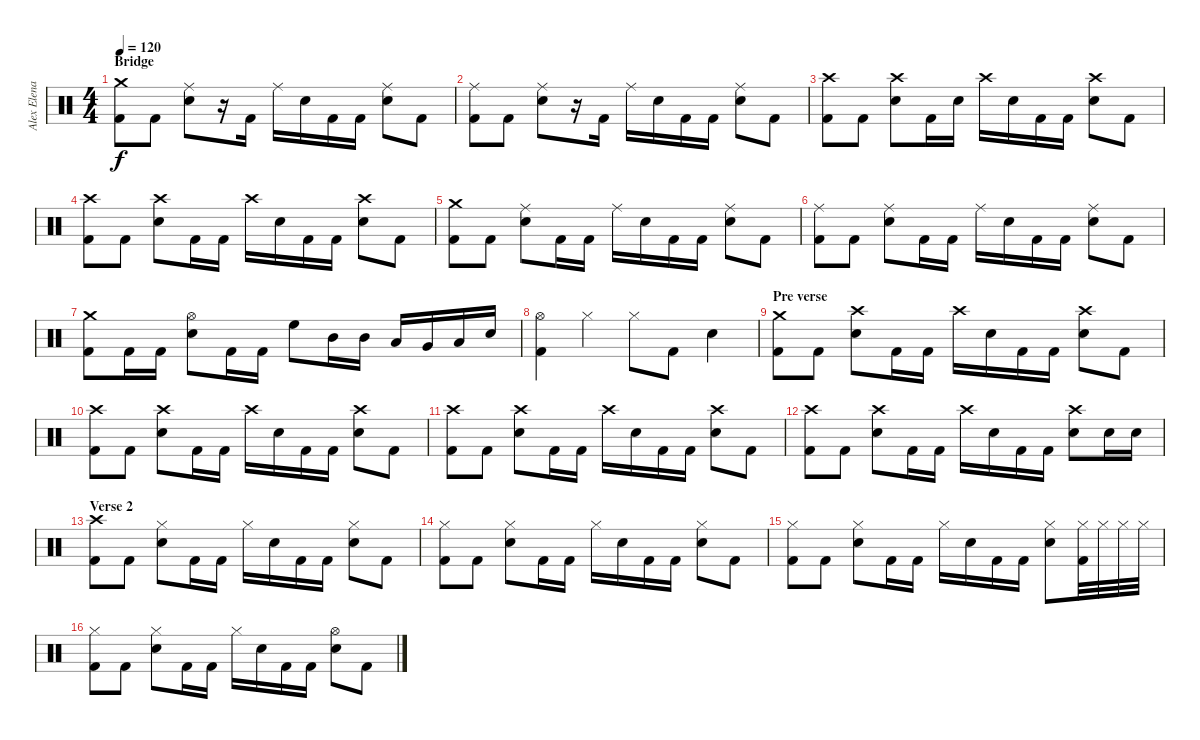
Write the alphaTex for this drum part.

\track ("Alex Elena (Percussion)" "Alex Elena") {instrument percussion}
\staff {score}
\articulation defaults
\ts (4 4)
\section ("" "Bridge")
\tempo 120
\clef neutral
\ks c
("Crash medium (hit)" "Kick (hit) 2").8{dy f} "Kick (hit) 2".8 ("Ride (middle)" "Snare (hit) 2").8 r.16 "Kick (hit) 2".16 "Ride (middle)".16 "Snare (hit) 2".16 "Kick (hit) 2".16 "Kick (hit) 2".16 ("Ride (middle)" "Snare (hit) 2").8 "Kick (hit) 2".8 |
("Ride (middle)" "Kick (hit) 2").8 "Kick (hit) 2".8 ("Ride (middle)" "Snare (hit) 2").8 r.16 "Kick (hit) 2".16 "Ride (middle)".16 "Snare (hit) 2".16 "Kick (hit) 2".16 "Kick (hit) 2".16 ("Ride (middle)" "Snare (hit) 2").8 "Kick (hit) 2".8 |
("Crash high (hit)" "Kick (hit) 2").8 "Kick (hit) 2".8 ("Crash high (hit)" "Snare (hit) 2").8 "Kick (hit) 2".16 "Snare (hit) 2".16 "Crash high (hit)".16 "Snare (hit) 2".16 "Kick (hit) 2".16 "Kick (hit) 2".16 ("Crash high (hit)" "Snare (hit) 2").8 "Kick (hit) 2".8 |
("Crash high (hit)" "Kick (hit) 2").8 "Kick (hit) 2".8 ("Crash high (hit)" "Snare (hit) 2").8 "Kick (hit) 2".16 "Kick (hit) 2".16 "Crash high (hit)".16 "Snare (hit) 2".16 "Kick (hit) 2".16 "Kick (hit) 2".16 ("Crash high (hit)" "Snare (hit) 2").8 "Kick (hit) 2".8 |
("Crash medium (hit)" "Kick (hit) 2").8 "Kick (hit) 2".8 ("Ride (middle)" "Snare (hit) 2").8 "Kick (hit) 2".16 "Kick (hit) 2".16 "Ride (middle)".16 "Snare (hit) 2".16 "Kick (hit) 2".16 "Kick (hit) 2".16 ("Ride (middle)" "Snare (hit) 2").8 "Kick (hit) 2".8 |
("Ride (middle)" "Kick (hit) 2").8 "Kick (hit) 2".8 ("Ride (middle)" "Snare (hit) 2").8 "Kick (hit) 2".16 "Kick (hit) 2".16 "Ride (middle)".16 "Snare (hit) 2".16 "Kick (hit) 2".16 "Kick (hit) 2".16 ("Ride (middle)" "Snare (hit) 2").8 "Kick (hit) 2".8 |
("Crash medium (hit)" "Kick (hit) 2").8 "Kick (hit) 2".16 "Kick (hit) 2".16 ("Hi-Hat (open)" "Snare (hit) 2").8 "Kick (hit) 2".16 "Kick (hit) 2".16 "High Floor Tom (hit)".8 "Mid Tom (hit)".16 "Mid Tom (hit)".16 "Low Tom (hit)".16 "Very Low Tom (hit)".16 "Low Floor Tom (hit)".16 "Snare (hit) 2".16 |
("Hi-Hat (open)" "Kick (hit) 2").4 "Hi-Hat (closed)".4 "Hi-Hat (closed)".8 "Kick (hit) 2".8 "Snare (hit) 2".4 |
\section ("" "Pre verse")
("Crash medium (hit)" "Kick (hit) 2").8 "Kick (hit) 2".8 ("Crash high (hit)" "Snare (hit) 2").8 "Kick (hit) 2".16 "Kick (hit) 2".16 "Crash high (hit)".16 "Snare (hit) 2".16 "Kick (hit) 2".16 "Kick (hit) 2".16 ("Crash high (hit)" "Snare (hit) 2").8 "Kick (hit) 2".8 |
("Crash high (hit)" "Kick (hit) 2").8 "Kick (hit) 2".8 ("Crash high (hit)" "Snare (hit) 2").8 "Kick (hit) 2".16 "Kick (hit) 2".16 "Crash high (hit)".16 "Snare (hit) 2".16 "Kick (hit) 2".16 "Kick (hit) 2".16 ("Crash high (hit)" "Snare (hit) 2").8 "Kick (hit) 2".8 |
("Crash high (hit)" "Kick (hit) 2").8 "Kick (hit) 2".8 ("Crash high (hit)" "Snare (hit) 2").8 "Kick (hit) 2".16 "Kick (hit) 2".16 "Crash high (hit)".16 "Snare (hit) 2".16 "Kick (hit) 2".16 "Kick (hit) 2".16 ("Crash high (hit)" "Snare (hit) 2").8 "Kick (hit) 2".8 |
("Crash high (hit)" "Kick (hit) 2").8 "Kick (hit) 2".8 ("Crash high (hit)" "Snare (hit) 2").8 "Kick (hit) 2".16 "Kick (hit) 2".16 "Crash high (hit)".16 "Snare (hit) 2".16 "Kick (hit) 2".16 "Kick (hit) 2".16 ("Crash high (hit)" "Snare (hit) 2").8 "Snare (hit) 2".16 "Snare (hit) 2".16 |
\section ("" "Verse 2")
("Crash high (hit)" "Kick (hit) 2").8 "Kick (hit) 2".8 ("Hi-Hat (closed)" "Snare (hit) 2").8 "Kick (hit) 2".16 "Kick (hit) 2".16 "Hi-Hat (closed)".16 "Snare (hit) 2".16 "Kick (hit) 2".16 "Kick (hit) 2".16 ("Hi-Hat (closed)" "Snare (hit) 2").8 "Kick (hit) 2".8 |
("Hi-Hat (closed)" "Kick (hit) 2").8 "Kick (hit) 2".8 ("Hi-Hat (closed)" "Snare (hit) 2").8 "Kick (hit) 2".16 "Kick (hit) 2".16 "Hi-Hat (closed)".16 "Snare (hit) 2".16 "Kick (hit) 2".16 "Kick (hit) 2".16 ("Hi-Hat (closed)" "Snare (hit) 2").8 "Kick (hit) 2".8 |
("Hi-Hat (closed)" "Kick (hit) 2").8 "Kick (hit) 2".8 ("Hi-Hat (closed)" "Snare (hit) 2").8 "Kick (hit) 2".16 "Kick (hit) 2".16 "Hi-Hat (closed)".16 "Snare (hit) 2".16 "Kick (hit) 2".16 "Kick (hit) 2".16 ("Hi-Hat (closed)" "Snare (hit) 2").8 ("Hi-Hat (closed)" "Kick (hit) 2").32 "Hi-Hat (closed)".32 "Hi-Hat (closed)".32 "Hi-Hat (closed)".32 |
("Hi-Hat (closed)" "Kick (hit) 2").8 "Kick (hit) 2".8 ("Hi-Hat (closed)" "Snare (hit) 2").8 "Kick (hit) 2".16 "Kick (hit) 2".16 "Hi-Hat (closed)".16 "Snare (hit) 2".16 "Kick (hit) 2".16 "Kick (hit) 2".16 ("Hi-Hat (open)" "Snare (hit) 2").8 "Kick (hit) 2".8
